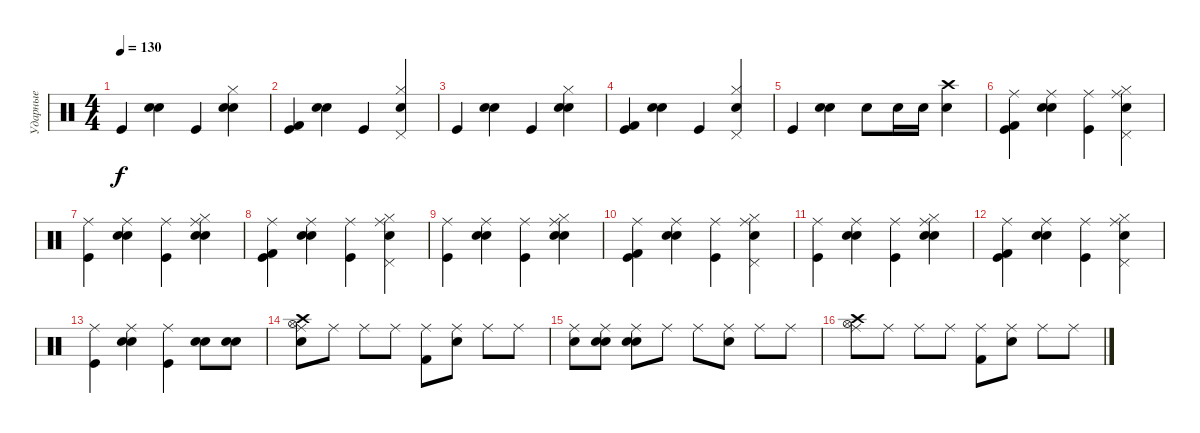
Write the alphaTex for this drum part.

\track ("Ударные" "Ударные") {instrument percussion}
\staff {score}
\articulation defaults
\ts (4 4)
\tempo 130
\clef neutral
\ks c "Kick (hit)".4{dy f}
("Electric Snare (hit)" "Electric Snare (hit)").4 "Kick (hit)".4 ("Electric Snare (hit)" "Electric Snare (hit)" "Hi-Hat (closed)").4 |
("Kick (hit)" "Kick (hit) 2").4 ("Electric Snare (hit)" "Electric Snare (hit)").4 "Kick (hit)".4 ("Electric Snare (hit)" "Pedal Hi-Hat (hit)" "Hi-Hat (closed)").4 |
"Kick (hit)".4 ("Electric Snare (hit)" "Electric Snare (hit)").4 "Kick (hit)".4 ("Electric Snare (hit)" "Electric Snare (hit)" "Hi-Hat (closed)").4 |
("Kick (hit)" "Kick (hit) 2").4 ("Electric Snare (hit)" "Electric Snare (hit)").4 "Kick (hit)".4 ("Electric Snare (hit)" "Pedal Hi-Hat (hit)" "Hi-Hat (closed)").4 |
"Kick (hit)".4 ("Electric Snare (hit)" "Electric Snare (hit)").4 "Electric Snare (hit)".8 "Electric Snare (hit)".16 "Electric Snare (hit)".16 ("Electric Snare (hit)" "Crash high (hit)").4 |
("Kick (hit)" "Kick (hit) 2" "Ride (middle)").4 ("Electric Snare (hit)" "Electric Snare (hit)" "Ride (middle)").4 ("Kick (hit)" "Ride (middle)").4 ("Electric Snare (hit)" "Pedal Hi-Hat (hit)" "Hi-Hat (closed)" "Ride (middle)").4 |
("Kick (hit)" "Ride (middle)").4 ("Electric Snare (hit)" "Electric Snare (hit)" "Ride (middle)").4 ("Kick (hit)" "Ride (middle)").4 ("Electric Snare (hit)" "Electric Snare (hit)" "Hi-Hat (closed)" "Ride (middle)").4 |
("Kick (hit)" "Kick (hit) 2" "Ride (middle)").4 ("Electric Snare (hit)" "Electric Snare (hit)" "Ride (middle)").4 ("Kick (hit)" "Ride (middle)").4 ("Electric Snare (hit)" "Pedal Hi-Hat (hit)" "Hi-Hat (closed)" "Ride (middle)").4 |
("Kick (hit)" "Ride (middle)").4 ("Electric Snare (hit)" "Electric Snare (hit)" "Ride (middle)").4 ("Kick (hit)" "Ride (middle)").4 ("Electric Snare (hit)" "Electric Snare (hit)" "Hi-Hat (closed)" "Ride (middle)").4 |
("Kick (hit)" "Kick (hit) 2" "Ride (middle)").4 ("Electric Snare (hit)" "Electric Snare (hit)" "Ride (middle)").4 ("Kick (hit)" "Ride (middle)").4 ("Electric Snare (hit)" "Pedal Hi-Hat (hit)" "Hi-Hat (closed)" "Ride (middle)").4 |
("Kick (hit)" "Ride (middle)").4 ("Electric Snare (hit)" "Electric Snare (hit)" "Ride (middle)").4 ("Kick (hit)" "Ride (middle)").4 ("Electric Snare (hit)" "Electric Snare (hit)" "Hi-Hat (closed)" "Ride (middle)").4 |
("Kick (hit)" "Kick (hit) 2" "Ride (middle)").4 ("Electric Snare (hit)" "Electric Snare (hit)" "Ride (middle)").4 ("Kick (hit)" "Ride (middle)").4 ("Electric Snare (hit)" "Pedal Hi-Hat (hit)" "Hi-Hat (closed)" "Ride (middle)").4 |
("Kick (hit)" "Ride (middle)").4 ("Electric Snare (hit)" "Electric Snare (hit)" "Ride (middle)").4 ("Kick (hit)" "Ride (middle)").4 ("Electric Snare (hit)" "Electric Snare (hit)").8 ("Electric Snare (hit)" "Electric Snare (hit)").8 |
("Hi-Hat (open)" "Electric Snare (hit)" "Ride (middle)" "Crash high (hit)").8 "Ride (middle)".8 "Ride (middle)".8 "Ride (middle)".8 ("Kick (hit) 2" "Ride (middle)").8 ("Electric Snare (hit)" "Ride (middle)").8 "Ride (middle)".8 "Ride (middle)".8 |
("Snare (hit) 2" "Ride (middle)").8 ("Electric Snare (hit)" "Electric Snare (hit)" "Ride (middle)").8 ("Electric Snare (hit)" "Electric Snare (hit)" "Ride (middle)").8 "Ride (middle)".8 "Ride (middle)".8 ("Electric Snare (hit)" "Ride (middle)").8 "Ride (middle)".8 "Ride (middle)".8 |
("Hi-Hat (open)" "Ride (middle)" "Crash high (hit)").8 "Ride (middle)".8 "Ride (middle)".8 "Ride (middle)".8 ("Kick (hit) 2" "Ride (middle)").8 ("Electric Snare (hit)" "Ride (middle)").8 "Ride (middle)".8 "Ride (middle)".8
